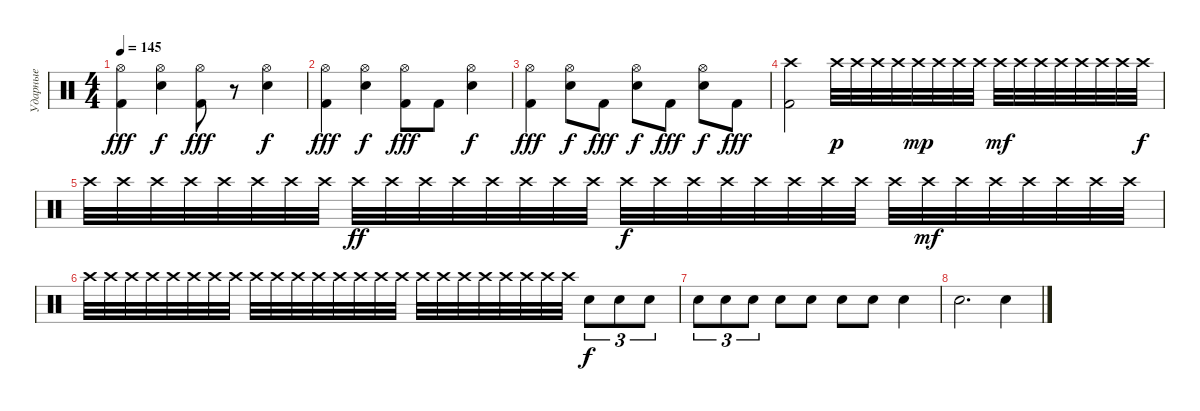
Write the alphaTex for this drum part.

\track ("Ударные" "Ударные") {instrument percussion}
\staff {score}
\articulation defaults
\ts (4 4)
\tempo 145
\clef neutral
\ks c
("Kick (hit) 2" "Hi-Hat (open)").4{dy fff} ("Snare (hit) 2" "Hi-Hat (open)").4{dy f} ("Kick (hit) 2" "Hi-Hat (open)").8{dy fff} r.8 ("Snare (hit) 2" "Hi-Hat (open)").4{dy f} |
("Kick (hit) 2" "Hi-Hat (open)").4{dy fff} ("Snare (hit) 2" "Hi-Hat (open)").4{dy f} ("Kick (hit) 2" "Hi-Hat (open)").8{dy fff} "Kick (hit) 2".8 ("Snare (hit) 2" "Hi-Hat (open)").4{dy f} |
("Kick (hit) 2" "Hi-Hat (open)").4{dy fff} ("Snare (hit) 2" "Hi-Hat (open)").8{dy f} "Kick (hit) 2".8{dy fff} ("Snare (hit) 2" "Hi-Hat (open)").8{dy f} "Kick (hit) 2".8{dy fff} ("Snare (hit) 2" "Hi-Hat (open)").8{dy f} "Kick (hit) 2".8{dy fff} |
("Kick (hit) 2" "Crash high (hit)").2 "Crash high (hit)".32{dy p} "Crash high (hit)".32 "Crash high (hit)".32 "Crash high (hit)".32 "Crash high (hit)".32{dy mp} "Crash high (hit)".32 "Crash high (hit)".32 "Crash high (hit)".32 "Crash high (hit)".32{dy mf} "Crash high (hit)".32 "Crash high (hit)".32 "Crash high (hit)".32 "Crash high (hit)".32 "Crash high (hit)".32 "Crash high (hit)".32 "Crash high (hit)".32{dy f} |
"Crash high (hit)".32 "Crash high (hit)".32 "Crash high (hit)".32 "Crash high (hit)".32 "Crash high (hit)".32 "Crash high (hit)".32 "Crash high (hit)".32 "Crash high (hit)".32 "Crash high (hit)".32{dy ff} "Crash high (hit)".32 "Crash high (hit)".32 "Crash high (hit)".32 "Crash high (hit)".32 "Crash high (hit)".32 "Crash high (hit)".32 "Crash high (hit)".32 "Crash high (hit)".32{dy f} "Crash high (hit)".32 "Crash high (hit)".32 "Crash high (hit)".32 "Crash high (hit)".32 "Crash high (hit)".32 "Crash high (hit)".32 "Crash high (hit)".32 "Crash high (hit)".32 "Crash high (hit)".32{dy mf} "Crash high (hit)".32 "Crash high (hit)".32 "Crash high (hit)".32 "Crash high (hit)".32 "Crash high (hit)".32 "Crash high (hit)".32 |
"Crash high (hit)".32 "Crash high (hit)".32 "Crash high (hit)".32 "Crash high (hit)".32 "Crash high (hit)".32 "Crash high (hit)".32 "Crash high (hit)".32 "Crash high (hit)".32 "Crash high (hit)".32 "Crash high (hit)".32 "Crash high (hit)".32 "Crash high (hit)".32 "Crash high (hit)".32 "Crash high (hit)".32 "Crash high (hit)".32 "Crash high (hit)".32 "Crash high (hit)".32 "Crash high (hit)".32 "Crash high (hit)".32 "Crash high (hit)".32 "Crash high (hit)".32 "Crash high (hit)".32 "Crash high (hit)".32 "Crash high (hit)".32 "Snare (hit) 2".8{tu (3 2) dy f} "Snare (hit) 2".8{tu (3 2)} "Snare (hit) 2".8{tu (3 2)} |
"Snare (hit) 2".8{tu (3 2)} "Snare (hit) 2".8{tu (3 2)} "Snare (hit) 2".8{tu (3 2)} "Snare (hit) 2".8 "Snare (hit) 2".8 "Snare (hit) 2".8 "Snare (hit) 2".8 "Snare (hit) 2".4 |
"Snare (hit) 2".2{d} "Snare (hit) 2".4
